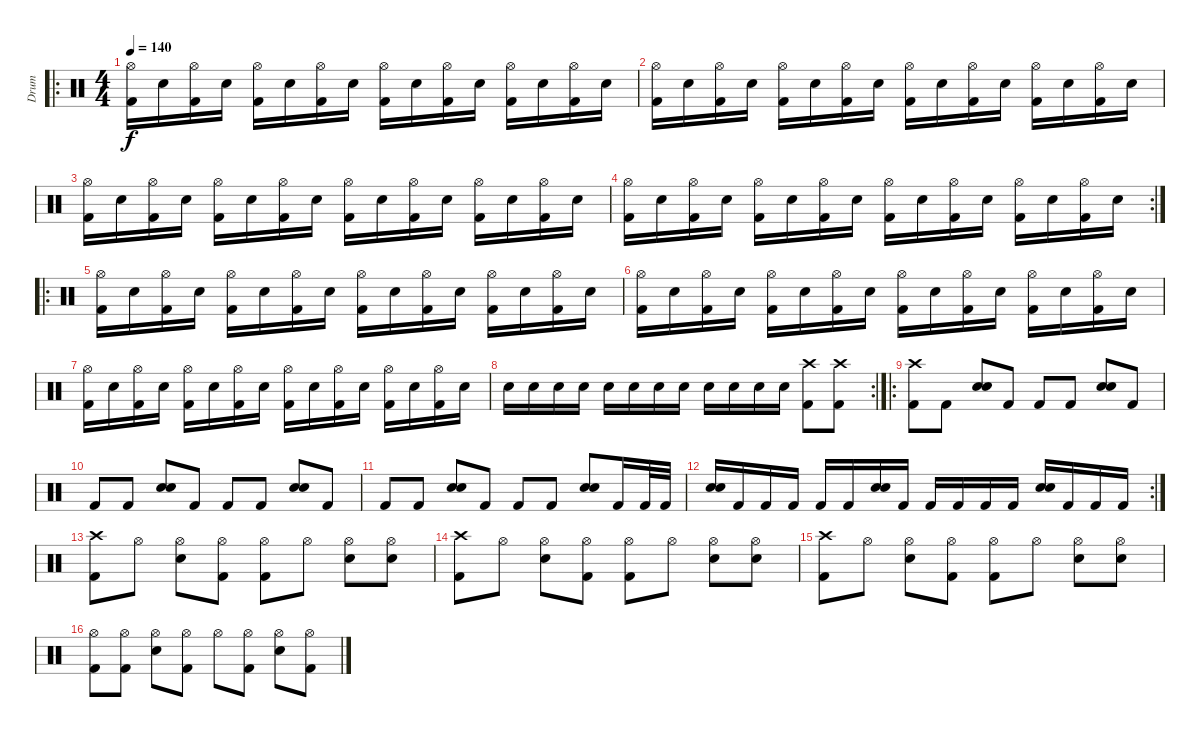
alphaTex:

\track ("Drum" "Drum") {instrument percussion}
\staff {score}
\articulation defaults
\ro
\ts (4 4)
\tempo 140
\clef neutral
\ks c
("Kick (hit) 2" "Hi-Hat (open)").16{dy f} "Electric Snare (hit)".16 ("Kick (hit) 2" "Hi-Hat (open)").16 "Electric Snare (hit)".16 ("Kick (hit) 2" "Hi-Hat (open)").16 "Electric Snare (hit)".16 ("Kick (hit) 2" "Hi-Hat (open)").16 "Electric Snare (hit)".16 ("Kick (hit) 2" "Hi-Hat (open)").16 "Electric Snare (hit)".16 ("Kick (hit) 2" "Hi-Hat (open)").16 "Electric Snare (hit)".16 ("Kick (hit) 2" "Hi-Hat (open)").16 "Electric Snare (hit)".16 ("Kick (hit) 2" "Hi-Hat (open)").16 "Electric Snare (hit)".16 |
("Kick (hit) 2" "Hi-Hat (open)").16 "Electric Snare (hit)".16 ("Kick (hit) 2" "Hi-Hat (open)").16 "Electric Snare (hit)".16 ("Kick (hit) 2" "Hi-Hat (open)").16 "Electric Snare (hit)".16 ("Kick (hit) 2" "Hi-Hat (open)").16 "Electric Snare (hit)".16 ("Kick (hit) 2" "Hi-Hat (open)").16 "Electric Snare (hit)".16 ("Kick (hit) 2" "Hi-Hat (open)").16 "Electric Snare (hit)".16 ("Kick (hit) 2" "Hi-Hat (open)").16 "Electric Snare (hit)".16 ("Kick (hit) 2" "Hi-Hat (open)").16 "Electric Snare (hit)".16 |
("Kick (hit) 2" "Hi-Hat (open)").16 "Electric Snare (hit)".16 ("Kick (hit) 2" "Hi-Hat (open)").16 "Electric Snare (hit)".16 ("Kick (hit) 2" "Hi-Hat (open)").16 "Electric Snare (hit)".16 ("Kick (hit) 2" "Hi-Hat (open)").16 "Electric Snare (hit)".16 ("Kick (hit) 2" "Hi-Hat (open)").16 "Electric Snare (hit)".16 ("Kick (hit) 2" "Hi-Hat (open)").16 "Electric Snare (hit)".16 ("Kick (hit) 2" "Hi-Hat (open)").16 "Electric Snare (hit)".16 ("Kick (hit) 2" "Hi-Hat (open)").16 "Electric Snare (hit)".16 |
\rc 2
("Kick (hit) 2" "Hi-Hat (open)").16 "Electric Snare (hit)".16 ("Kick (hit) 2" "Hi-Hat (open)").16 "Electric Snare (hit)".16 ("Kick (hit) 2" "Hi-Hat (open)").16 "Electric Snare (hit)".16 ("Kick (hit) 2" "Hi-Hat (open)").16 "Electric Snare (hit)".16 ("Kick (hit) 2" "Hi-Hat (open)").16 "Electric Snare (hit)".16 ("Kick (hit) 2" "Hi-Hat (open)").16 "Electric Snare (hit)".16 ("Kick (hit) 2" "Hi-Hat (open)").16 "Electric Snare (hit)".16 ("Kick (hit) 2" "Hi-Hat (open)").16 "Electric Snare (hit)".16 |
\ro
("Kick (hit) 2" "Hi-Hat (open)").16 "Electric Snare (hit)".16 ("Kick (hit) 2" "Hi-Hat (open)").16 "Electric Snare (hit)".16 ("Kick (hit) 2" "Hi-Hat (open)").16 "Electric Snare (hit)".16 ("Kick (hit) 2" "Hi-Hat (open)").16 "Electric Snare (hit)".16 ("Kick (hit) 2" "Hi-Hat (open)").16 "Electric Snare (hit)".16 ("Kick (hit) 2" "Hi-Hat (open)").16 "Electric Snare (hit)".16 ("Kick (hit) 2" "Hi-Hat (open)").16 "Electric Snare (hit)".16 ("Kick (hit) 2" "Hi-Hat (open)").16 "Electric Snare (hit)".16 |
("Kick (hit) 2" "Hi-Hat (open)").16 "Electric Snare (hit)".16 ("Kick (hit) 2" "Hi-Hat (open)").16 "Electric Snare (hit)".16 ("Kick (hit) 2" "Hi-Hat (open)").16 "Electric Snare (hit)".16 ("Kick (hit) 2" "Hi-Hat (open)").16 "Electric Snare (hit)".16 ("Kick (hit) 2" "Hi-Hat (open)").16 "Electric Snare (hit)".16 ("Kick (hit) 2" "Hi-Hat (open)").16 "Electric Snare (hit)".16 ("Kick (hit) 2" "Hi-Hat (open)").16 "Electric Snare (hit)".16 ("Kick (hit) 2" "Hi-Hat (open)").16 "Electric Snare (hit)".16 |
("Kick (hit) 2" "Hi-Hat (open)").16 "Electric Snare (hit)".16 ("Kick (hit) 2" "Hi-Hat (open)").16 "Electric Snare (hit)".16 ("Kick (hit) 2" "Hi-Hat (open)").16 "Electric Snare (hit)".16 ("Kick (hit) 2" "Hi-Hat (open)").16 "Electric Snare (hit)".16 ("Kick (hit) 2" "Hi-Hat (open)").16 "Electric Snare (hit)".16 ("Kick (hit) 2" "Hi-Hat (open)").16 "Electric Snare (hit)".16 ("Kick (hit) 2" "Hi-Hat (open)").16 "Electric Snare (hit)".16 ("Kick (hit) 2" "Hi-Hat (open)").16 "Electric Snare (hit)".16 |
\rc 2 "Electric Snare (hit)".16 "Electric Snare (hit)".16 "Electric Snare (hit)".16 "Electric Snare (hit)".16 "Electric Snare (hit)".16 "Electric Snare (hit)".16 "Electric Snare (hit)".16 "Electric Snare (hit)".16 "Electric Snare (hit)".16 "Electric Snare (hit)".16 "Electric Snare (hit)".16 "Electric Snare (hit)".16
("Kick (hit) 2" "Crash high (hit)").8 ("Kick (hit) 2" "Crash high (hit)").8 |
\ro
("Kick (hit) 2" "Crash high (hit)").8 "Kick (hit) 2".8 ("Electric Snare (hit)" "Electric Snare (hit)").8 "Kick (hit) 2".8 "Kick (hit) 2".8 "Kick (hit) 2".8 ("Electric Snare (hit)" "Electric Snare (hit)").8 "Kick (hit) 2".8 |
"Kick (hit) 2".8 "Kick (hit) 2".8 ("Electric Snare (hit)" "Electric Snare (hit)").8 "Kick (hit) 2".8 "Kick (hit) 2".8 "Kick (hit) 2".8 ("Electric Snare (hit)" "Electric Snare (hit)").8 "Kick (hit) 2".8 |
"Kick (hit) 2".8 "Kick (hit) 2".8 ("Electric Snare (hit)" "Electric Snare (hit)").8 "Kick (hit) 2".8 "Kick (hit) 2".8 "Kick (hit) 2".8 ("Electric Snare (hit)" "Electric Snare (hit)").8 "Kick (hit) 2".16 "Kick (hit) 2".32 "Kick (hit) 2".32 |
\rc 2
("Electric Snare (hit)" "Electric Snare (hit)").16 "Kick (hit) 2".16 "Kick (hit) 2".16 "Kick (hit) 2".16 "Kick (hit) 2".16 "Kick (hit) 2".16 ("Electric Snare (hit)" "Electric Snare (hit)").16 "Kick (hit) 2".16 "Kick (hit) 2".16 "Kick (hit) 2".16 "Kick (hit) 2".16 "Kick (hit) 2".16 ("Electric Snare (hit)" "Electric Snare (hit)").16 "Kick (hit) 2".16 "Kick (hit) 2".16 "Kick (hit) 2".16 |
("Kick (hit) 2" "Crash high (hit)").8 "Hi-Hat (open)".8 ("Electric Snare (hit)" "Hi-Hat (open)").8 ("Kick (hit) 2" "Hi-Hat (open)").8 ("Kick (hit) 2" "Hi-Hat (open)").8 "Hi-Hat (open)".8 ("Electric Snare (hit)" "Hi-Hat (open)").8 ("Electric Snare (hit)" "Hi-Hat (open)").8 |
("Kick (hit) 2" "Crash high (hit)").8 "Hi-Hat (open)".8 ("Electric Snare (hit)" "Hi-Hat (open)").8 ("Kick (hit) 2" "Hi-Hat (open)").8 ("Kick (hit) 2" "Hi-Hat (open)").8 "Hi-Hat (open)".8 ("Electric Snare (hit)" "Hi-Hat (open)").8 ("Electric Snare (hit)" "Hi-Hat (open)").8 |
("Kick (hit) 2" "Crash high (hit)").8 "Hi-Hat (open)".8 ("Electric Snare (hit)" "Hi-Hat (open)").8 ("Kick (hit) 2" "Hi-Hat (open)").8 ("Kick (hit) 2" "Hi-Hat (open)").8 "Hi-Hat (open)".8 ("Electric Snare (hit)" "Hi-Hat (open)").8 ("Electric Snare (hit)" "Hi-Hat (open)").8 |
("Kick (hit) 2" "Hi-Hat (open)").8 ("Kick (hit) 2" "Hi-Hat (open)").8 ("Electric Snare (hit)" "Hi-Hat (open)").8 ("Kick (hit) 2" "Hi-Hat (open)").8 "Hi-Hat (open)".8 ("Kick (hit) 2" "Hi-Hat (open)").8 ("Electric Snare (hit)" "Hi-Hat (open)").8 ("Kick (hit) 2" "Hi-Hat (open)").8
